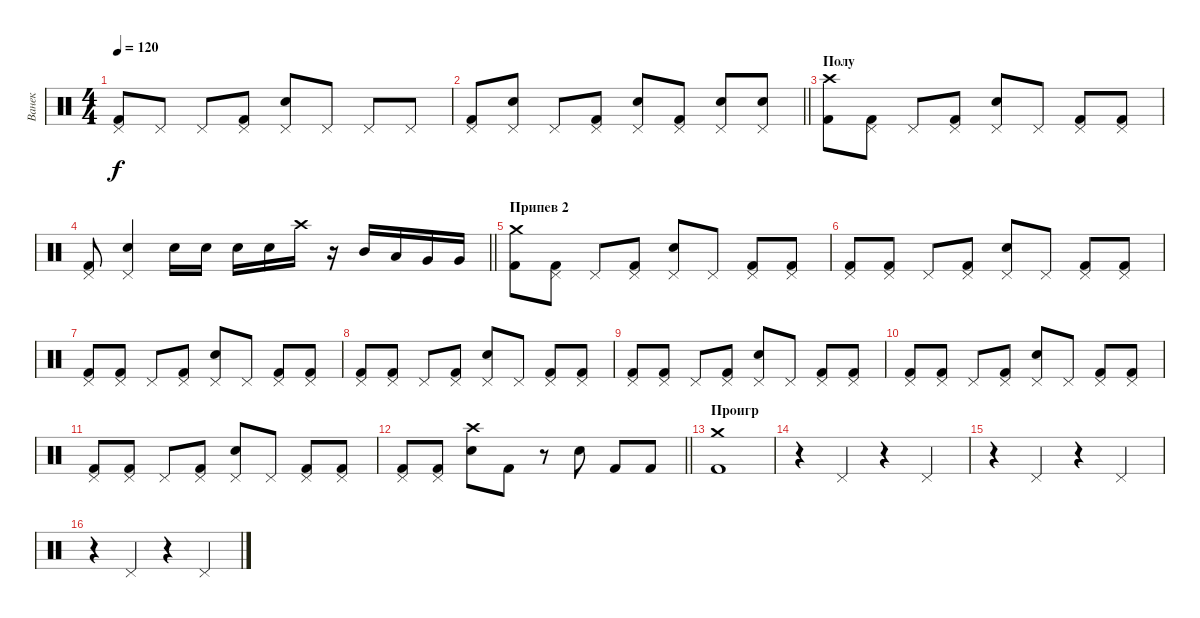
\track ("Ванек" "Ванек") {instrument percussion}
\staff {score}
\articulation defaults
\ts (4 4)
\tempo 120
\clef neutral
\ks c
("Kick (hit) 2" "Pedal Hi-Hat (hit)").8{dy f} "Pedal Hi-Hat (hit)".8 "Pedal Hi-Hat (hit)".8 ("Kick (hit) 2" "Pedal Hi-Hat (hit)").8 ("Electric Snare (hit)" "Pedal Hi-Hat (hit)").8 "Pedal Hi-Hat (hit)".8 "Pedal Hi-Hat (hit)".8 "Pedal Hi-Hat (hit)".8 |
\barLineRight lightlight
("Kick (hit) 2" "Pedal Hi-Hat (hit)").8 ("Electric Snare (hit)" "Pedal Hi-Hat (hit)").8 "Pedal Hi-Hat (hit)".8 ("Kick (hit) 2" "Pedal Hi-Hat (hit)").8 ("Electric Snare (hit)" "Pedal Hi-Hat (hit)").8 ("Kick (hit) 2" "Pedal Hi-Hat (hit)").8 ("Electric Snare (hit)" "Pedal Hi-Hat (hit)").8 ("Electric Snare (hit)" "Pedal Hi-Hat (hit)").8 |
\section ("" "Полу")
("Kick (hit) 2" "Crash high (hit)").8 ("Kick (hit) 2" "Pedal Hi-Hat (hit)").8 "Pedal Hi-Hat (hit)".8 ("Kick (hit) 2" "Pedal Hi-Hat (hit)").8 ("Electric Snare (hit)" "Pedal Hi-Hat (hit)").8 "Pedal Hi-Hat (hit)".8 ("Kick (hit) 2" "Pedal Hi-Hat (hit)").8 ("Kick (hit) 2" "Pedal Hi-Hat (hit)").8 |
\barLineRight lightlight
("Kick (hit) 2" "Pedal Hi-Hat (hit)").8 ("Electric Snare (hit)" "Pedal Hi-Hat (hit)").4 "Electric Snare (hit)".16 "Electric Snare (hit)".16 "Electric Snare (hit)".16 "Electric Snare (hit)".16 "Crash high (hit)".16 r.16 "Mid Tom (hit)".16 "Low Tom (hit)".16 "Very Low Tom (hit)".16 "Very Low Tom (hit)".16 |
\section ("" "Припев 2")
("Kick (hit) 2" "Crash medium (hit)").8 ("Kick (hit) 2" "Pedal Hi-Hat (hit)").8 "Pedal Hi-Hat (hit)".8 ("Kick (hit) 2" "Pedal Hi-Hat (hit)").8 ("Electric Snare (hit)" "Pedal Hi-Hat (hit)").8 "Pedal Hi-Hat (hit)".8 ("Kick (hit) 2" "Pedal Hi-Hat (hit)").8 ("Kick (hit) 2" "Pedal Hi-Hat (hit)").8 |
("Kick (hit) 2" "Pedal Hi-Hat (hit)").8 ("Kick (hit) 2" "Pedal Hi-Hat (hit)").8 "Pedal Hi-Hat (hit)".8 ("Kick (hit) 2" "Pedal Hi-Hat (hit)").8 ("Electric Snare (hit)" "Pedal Hi-Hat (hit)").8 "Pedal Hi-Hat (hit)".8 ("Kick (hit) 2" "Pedal Hi-Hat (hit)").8 ("Kick (hit) 2" "Pedal Hi-Hat (hit)").8 |
("Kick (hit) 2" "Pedal Hi-Hat (hit)").8 ("Kick (hit) 2" "Pedal Hi-Hat (hit)").8 "Pedal Hi-Hat (hit)".8 ("Kick (hit) 2" "Pedal Hi-Hat (hit)").8 ("Electric Snare (hit)" "Pedal Hi-Hat (hit)").8 "Pedal Hi-Hat (hit)".8 ("Kick (hit) 2" "Pedal Hi-Hat (hit)").8 ("Kick (hit) 2" "Pedal Hi-Hat (hit)").8 |
("Kick (hit) 2" "Pedal Hi-Hat (hit)").8 ("Kick (hit) 2" "Pedal Hi-Hat (hit)").8 "Pedal Hi-Hat (hit)".8 ("Kick (hit) 2" "Pedal Hi-Hat (hit)").8 ("Electric Snare (hit)" "Pedal Hi-Hat (hit)").8 "Pedal Hi-Hat (hit)".8 ("Kick (hit) 2" "Pedal Hi-Hat (hit)").8 ("Kick (hit) 2" "Pedal Hi-Hat (hit)").8 |
("Kick (hit) 2" "Pedal Hi-Hat (hit)").8 ("Kick (hit) 2" "Pedal Hi-Hat (hit)").8 "Pedal Hi-Hat (hit)".8 ("Kick (hit) 2" "Pedal Hi-Hat (hit)").8 ("Electric Snare (hit)" "Pedal Hi-Hat (hit)").8 "Pedal Hi-Hat (hit)".8 ("Kick (hit) 2" "Pedal Hi-Hat (hit)").8 ("Kick (hit) 2" "Pedal Hi-Hat (hit)").8 |
("Kick (hit) 2" "Pedal Hi-Hat (hit)").8 ("Kick (hit) 2" "Pedal Hi-Hat (hit)").8 "Pedal Hi-Hat (hit)".8 ("Kick (hit) 2" "Pedal Hi-Hat (hit)").8 ("Electric Snare (hit)" "Pedal Hi-Hat (hit)").8 "Pedal Hi-Hat (hit)".8 ("Kick (hit) 2" "Pedal Hi-Hat (hit)").8 ("Kick (hit) 2" "Pedal Hi-Hat (hit)").8 |
("Kick (hit) 2" "Pedal Hi-Hat (hit)").8 ("Kick (hit) 2" "Pedal Hi-Hat (hit)").8 "Pedal Hi-Hat (hit)".8 ("Kick (hit) 2" "Pedal Hi-Hat (hit)").8 ("Electric Snare (hit)" "Pedal Hi-Hat (hit)").8 "Pedal Hi-Hat (hit)".8 ("Kick (hit) 2" "Pedal Hi-Hat (hit)").8 ("Kick (hit) 2" "Pedal Hi-Hat (hit)").8 |
\barLineRight lightlight
("Kick (hit) 2" "Pedal Hi-Hat (hit)").8 ("Kick (hit) 2" "Pedal Hi-Hat (hit)").8 ("Crash high (hit)" "Electric Snare (hit)").8 "Kick (hit) 2".8 r.8 "Electric Snare (hit)".8 "Kick (hit) 2".8 "Kick (hit) 2".8 |
\section ("" "Проигр")
("Kick (hit) 2" "Crash medium (hit)").1 |
r.4 "Pedal Hi-Hat (hit)".4 r.4 "Pedal Hi-Hat (hit)".4 |
r.4 "Pedal Hi-Hat (hit)".4 r.4 "Pedal Hi-Hat (hit)".4 |
r.4 "Pedal Hi-Hat (hit)".4 r.4 "Pedal Hi-Hat (hit)".4
